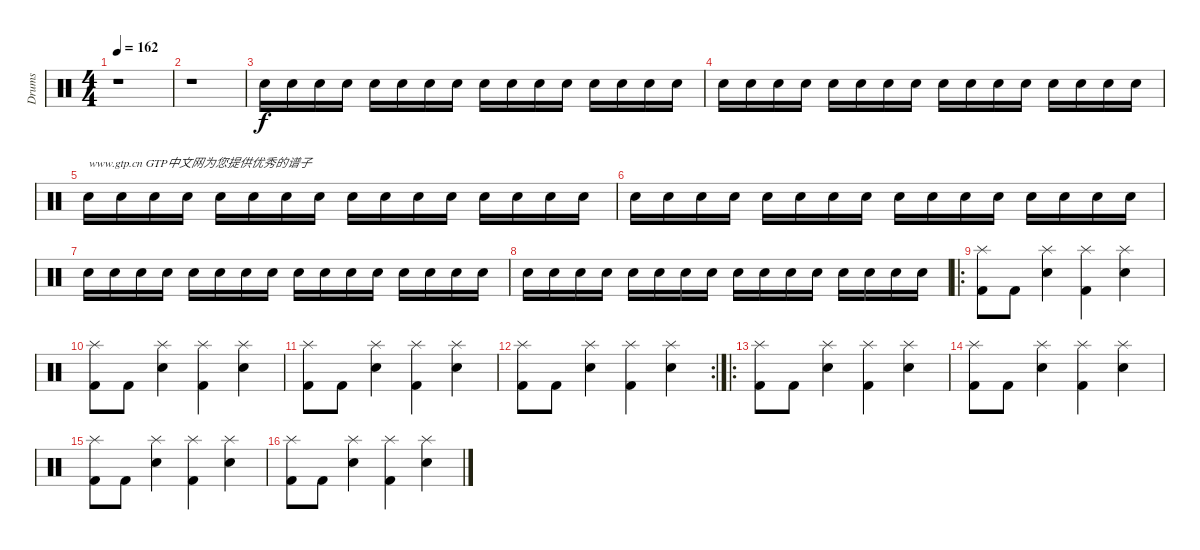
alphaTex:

\track ("Drums" "Drums") {instrument percussion}
\staff {score}
\articulation defaults
\ts (4 4)
\tempo 162
\clef neutral
\ks c
r.1{dy f} |
r.1 |
"Snare (hit) 2".16 "Snare (hit) 2".16 "Snare (hit) 2".16 "Snare (hit) 2".16 "Snare (hit) 2".16 "Snare (hit) 2".16 "Snare (hit) 2".16 "Snare (hit) 2".16 "Snare (hit) 2".16 "Snare (hit) 2".16 "Snare (hit) 2".16 "Snare (hit) 2".16 "Snare (hit) 2".16 "Snare (hit) 2".16 "Snare (hit) 2".16 "Snare (hit) 2".16 |
"Snare (hit) 2".16 "Snare (hit) 2".16 "Snare (hit) 2".16 "Snare (hit) 2".16 "Snare (hit) 2".16 "Snare (hit) 2".16 "Snare (hit) 2".16 "Snare (hit) 2".16 "Snare (hit) 2".16 "Snare (hit) 2".16 "Snare (hit) 2".16 "Snare (hit) 2".16 "Snare (hit) 2".16 "Snare (hit) 2".16 "Snare (hit) 2".16 "Snare (hit) 2".16 |
"Snare (hit) 2".16{txt "www.gtp.cn GTP中文网为您提供优秀的谱子"} "Snare (hit) 2".16 "Snare (hit) 2".16 "Snare (hit) 2".16 "Snare (hit) 2".16 "Snare (hit) 2".16 "Snare (hit) 2".16 "Snare (hit) 2".16 "Snare (hit) 2".16 "Snare (hit) 2".16 "Snare (hit) 2".16 "Snare (hit) 2".16 "Snare (hit) 2".16 "Snare (hit) 2".16 "Snare (hit) 2".16 "Snare (hit) 2".16 |
"Snare (hit) 2".16 "Snare (hit) 2".16 "Snare (hit) 2".16 "Snare (hit) 2".16 "Snare (hit) 2".16 "Snare (hit) 2".16 "Snare (hit) 2".16 "Snare (hit) 2".16 "Snare (hit) 2".16 "Snare (hit) 2".16 "Snare (hit) 2".16 "Snare (hit) 2".16 "Snare (hit) 2".16 "Snare (hit) 2".16 "Snare (hit) 2".16 "Snare (hit) 2".16 |
"Snare (hit) 2".16 "Snare (hit) 2".16 "Snare (hit) 2".16 "Snare (hit) 2".16 "Snare (hit) 2".16 "Snare (hit) 2".16 "Snare (hit) 2".16 "Snare (hit) 2".16 "Snare (hit) 2".16 "Snare (hit) 2".16 "Snare (hit) 2".16 "Snare (hit) 2".16 "Snare (hit) 2".16 "Snare (hit) 2".16 "Snare (hit) 2".16 "Snare (hit) 2".16 |
"Snare (hit) 2".16 "Snare (hit) 2".16 "Snare (hit) 2".16 "Snare (hit) 2".16 "Snare (hit) 2".16 "Snare (hit) 2".16 "Snare (hit) 2".16 "Snare (hit) 2".16 "Snare (hit) 2".16 "Snare (hit) 2".16 "Snare (hit) 2".16 "Snare (hit) 2".16 "Snare (hit) 2".16 "Snare (hit) 2".16 "Snare (hit) 2".16 "Snare (hit) 2".16 |
\ro
("Splash (hit)" "Kick (hit) 2").8 "Kick (hit) 2".8 ("Splash (hit)" "Snare (hit) 2").4 ("Splash (hit)" "Kick (hit) 2").4 ("Splash (hit)" "Snare (hit) 2").4 |
("Splash (hit)" "Kick (hit) 2").8 "Kick (hit) 2".8 ("Splash (hit)" "Snare (hit) 2").4 ("Splash (hit)" "Kick (hit) 2").4 ("Splash (hit)" "Snare (hit) 2").4 |
("Splash (hit)" "Kick (hit) 2").8 "Kick (hit) 2".8 ("Splash (hit)" "Snare (hit) 2").4 ("Splash (hit)" "Kick (hit) 2").4 ("Splash (hit)" "Snare (hit) 2").4 |
\rc 2
("Splash (hit)" "Kick (hit) 2").8 "Kick (hit) 2".8 ("Splash (hit)" "Snare (hit) 2").4 ("Splash (hit)" "Kick (hit) 2").4 ("Splash (hit)" "Snare (hit) 2").4 |
\ro
("Splash (hit)" "Kick (hit) 2").8 "Kick (hit) 2".8 ("Splash (hit)" "Snare (hit) 2").4 ("Splash (hit)" "Kick (hit) 2").4 ("Splash (hit)" "Snare (hit) 2").4 |
("Splash (hit)" "Kick (hit) 2").8 "Kick (hit) 2".8 ("Splash (hit)" "Snare (hit) 2").4 ("Splash (hit)" "Kick (hit) 2").4 ("Splash (hit)" "Snare (hit) 2").4 |
("Splash (hit)" "Kick (hit) 2").8 "Kick (hit) 2".8 ("Splash (hit)" "Snare (hit) 2").4 ("Splash (hit)" "Kick (hit) 2").4 ("Splash (hit)" "Snare (hit) 2").4 |
("Splash (hit)" "Kick (hit) 2").8 "Kick (hit) 2".8 ("Splash (hit)" "Snare (hit) 2").4 ("Splash (hit)" "Kick (hit) 2").4 ("Splash (hit)" "Snare (hit) 2").4
